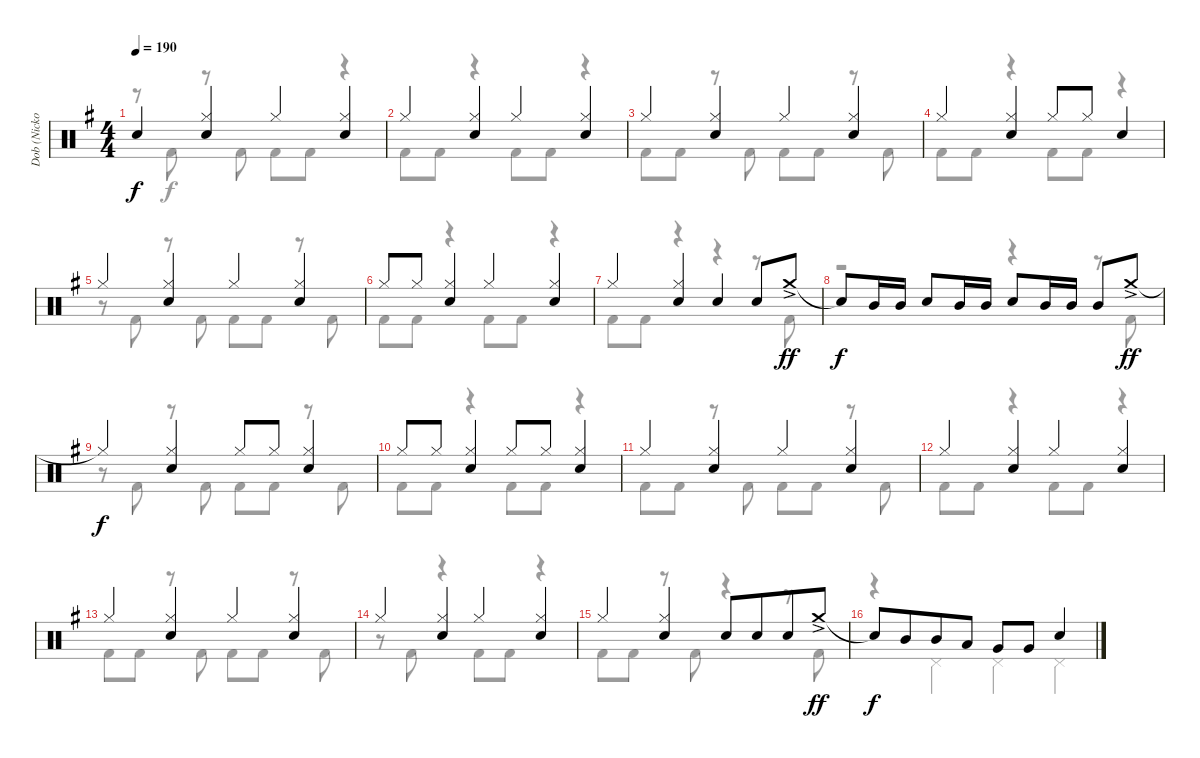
\track ("Dob (Nicko McBrain)" "Dob (Nicko") {instrument percussion}
\staff {score}
\articulation defaults
\voice
\ts (4 4)
\tempo 190
\clef neutral
\ks g "Snare (hit)"{t}.4{dy f}
("Hi-Hat (closed)" "Electric Snare (hit)").4 "Hi-Hat (closed)".4 ("Hi-Hat (closed)" "Electric Snare (hit)").4 |
"Hi-Hat (closed)".4 ("Hi-Hat (closed)" "Electric Snare (hit)").4 "Hi-Hat (closed)".4 ("Hi-Hat (closed)" "Electric Snare (hit)").4 |
"Hi-Hat (closed)".4 ("Hi-Hat (closed)" "Electric Snare (hit)").4 "Hi-Hat (closed)".4 ("Hi-Hat (closed)" "Electric Snare (hit)").4 |
"Hi-Hat (closed)".4 ("Hi-Hat (closed)" "Electric Snare (hit)").4 "Hi-Hat (closed)".8 "Hi-Hat (closed)".8 "Electric Snare (hit)".4 |
"Hi-Hat (closed)".4 ("Hi-Hat (closed)" "Electric Snare (hit)").4 "Hi-Hat (closed)".4 ("Hi-Hat (closed)" "Electric Snare (hit)").4 |
"Hi-Hat (closed)".8 "Hi-Hat (closed)".8 ("Hi-Hat (closed)" "Electric Snare (hit)").4 "Hi-Hat (closed)".4 ("Hi-Hat (closed)" "Electric Snare (hit)").4 |
"Hi-Hat (closed)".4 ("Hi-Hat (closed)" "Electric Snare (hit)").4 "Electric Snare (hit)".4 "Electric Snare (hit)".8 "Crash medium (hit)"{ac}.8{dy ff} |
"Snare (hit)"{t}.8{dy f} "Mid Tom (hit)".16 "Mid Tom (hit)".16 "Electric Snare (hit)".8 "Mid Tom (hit)".16 "Mid Tom (hit)".16 "Electric Snare (hit)".8 "Mid Tom (hit)".16 "Mid Tom (hit)".16 "Mid Tom (hit)".8 "Crash medium (hit)"{ac}.8{dy ff} |
"Hi-Hat (closed)"{t}.4{dy f} ("Hi-Hat (closed)" "Electric Snare (hit)").4 "Hi-Hat (closed)".8 "Hi-Hat (closed)".8 ("Hi-Hat (closed)" "Electric Snare (hit)").4 |
"Hi-Hat (closed)".8 "Hi-Hat (closed)".8 ("Hi-Hat (closed)" "Electric Snare (hit)").4 "Hi-Hat (closed)".8 "Hi-Hat (closed)".8 ("Hi-Hat (closed)" "Electric Snare (hit)").4 |
"Hi-Hat (closed)".4 ("Hi-Hat (closed)" "Electric Snare (hit)").4 "Hi-Hat (closed)".4 ("Hi-Hat (closed)" "Electric Snare (hit)").4 |
"Hi-Hat (closed)".4 ("Hi-Hat (closed)" "Electric Snare (hit)").4 "Hi-Hat (closed)".4 ("Hi-Hat (closed)" "Electric Snare (hit)").4 |
"Hi-Hat (closed)".4 ("Hi-Hat (closed)" "Electric Snare (hit)").4 "Hi-Hat (closed)".4 ("Hi-Hat (closed)" "Electric Snare (hit)").4 |
"Hi-Hat (closed)".4 ("Hi-Hat (closed)" "Electric Snare (hit)").4 "Hi-Hat (closed)".4 ("Hi-Hat (closed)" "Electric Snare (hit)").4 |
"Hi-Hat (closed)".4 ("Hi-Hat (closed)" "Electric Snare (hit)").4 "Electric Snare (hit)".8 "Electric Snare (hit)".8{beam merge} "Electric Snare (hit)".8 "Crash medium (hit)"{ac}.8{dy ff} |
"Snare (hit)"{t}.8{dy f} "Mid Tom (hit)".8{beam merge} "Mid Tom (hit)".8 "Low Tom (hit)".8 "Very Low Tom (hit)".8 "Very Low Tom (hit)".8 "Electric Snare (hit)".4
\voice
\clef neutral
\ottava regular
\simile none
\ks g
r.8{dy f} "Kick (hit) 2".8 r.8 "Kick (hit) 2".8 "Kick (hit) 2".8 "Kick (hit) 2".8 r.4 |
"Kick (hit) 2".8 "Kick (hit) 2".8 r.4 "Kick (hit) 2".8 "Kick (hit) 2".8 r.4 |
"Kick (hit) 2".8 "Kick (hit) 2".8 r.8 "Kick (hit) 2".8 "Kick (hit) 2".8 "Kick (hit) 2".8 r.8 "Kick (hit) 2".8 |
"Kick (hit) 2".8 "Kick (hit) 2".8 r.4 "Kick (hit) 2".8 "Kick (hit) 2".8 r.4 |
r.8 "Kick (hit) 2".8 r.8 "Kick (hit) 2".8 "Kick (hit) 2".8 "Kick (hit) 2".8 r.8 "Kick (hit) 2".8 |
"Kick (hit) 2".8 "Kick (hit) 2".8 r.4 "Kick (hit) 2".8 "Kick (hit) 2".8 r.4 |
"Kick (hit) 2".8 "Kick (hit) 2".8 r.4 r.4 r.8 "Kick (hit) 2".8 |
r.2 r.4 r.8 "Kick (hit) 2".8 |
r.8 "Kick (hit) 2".8 r.8 "Kick (hit) 2".8 "Kick (hit) 2".8 "Kick (hit) 2".8 r.8 "Kick (hit) 2".8 |
"Kick (hit) 2".8 "Kick (hit) 2".8 r.4 "Kick (hit) 2".8 "Kick (hit) 2".8 r.4 |
"Kick (hit) 2".8 "Kick (hit) 2".8 r.8 "Kick (hit) 2".8 "Kick (hit) 2".8 "Kick (hit) 2".8 r.8 "Kick (hit) 2".8 |
"Kick (hit) 2".8 "Kick (hit) 2".8 r.4 "Kick (hit) 2".8 "Kick (hit) 2".8 r.4 |
"Kick (hit) 2".8 "Kick (hit) 2".8 r.8 "Kick (hit) 2".8 "Kick (hit) 2".8 "Kick (hit) 2".8 r.8 "Kick (hit) 2".8 |
r.8 "Kick (hit) 2".8 r.4 "Kick (hit) 2".8 "Kick (hit) 2".8 r.4 |
"Kick (hit) 2".8 "Kick (hit) 2".8 r.8 "Kick (hit) 2".8 r.4 r.8 "Kick (hit) 2".8 |
r.4 "Pedal Hi-Hat (hit)".4 "Pedal Hi-Hat (hit)".4 "Pedal Hi-Hat (hit)".4
